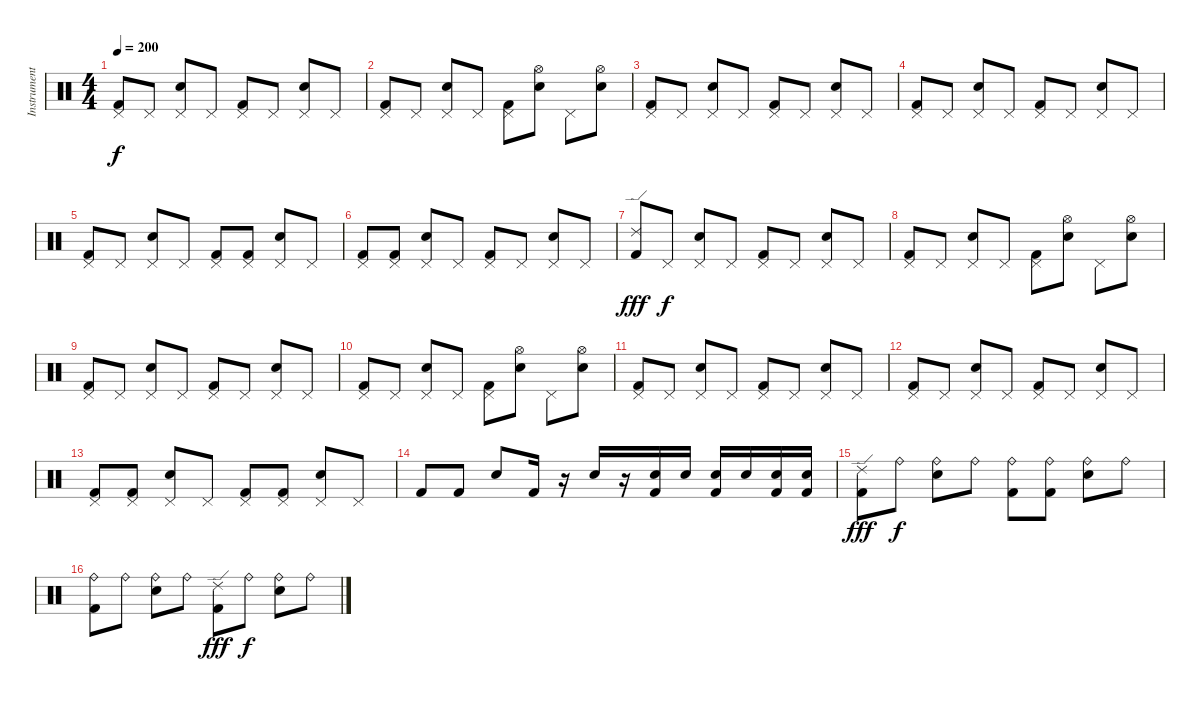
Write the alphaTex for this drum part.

\track ("Instrument 03" "Instrument") {instrument percussion}
\staff {score}
\articulation defaults
\ts (4 4)
\tempo 200
\clef neutral
\ks c
("Kick (hit) 2" "Pedal Hi-Hat (hit)").8{dy f} "Pedal Hi-Hat (hit)".8 ("Snare (hit) 2" "Pedal Hi-Hat (hit)").8 "Pedal Hi-Hat (hit)".8 ("Kick (hit) 2" "Pedal Hi-Hat (hit)").8 "Pedal Hi-Hat (hit)".8 ("Snare (hit) 2" "Pedal Hi-Hat (hit)").8 "Pedal Hi-Hat (hit)".8 |
("Kick (hit) 2" "Pedal Hi-Hat (hit)").8 "Pedal Hi-Hat (hit)".8 ("Snare (hit) 2" "Pedal Hi-Hat (hit)").8 "Pedal Hi-Hat (hit)".8 ("Kick (hit) 2" "Pedal Hi-Hat (hit)").8 ("Snare (hit) 2" "Hi-Hat (open)").8 "Pedal Hi-Hat (hit)".8 ("Snare (hit) 2" "Hi-Hat (open)").8 |
("Kick (hit) 2" "Pedal Hi-Hat (hit)").8 "Pedal Hi-Hat (hit)".8 ("Snare (hit) 2" "Pedal Hi-Hat (hit)").8 "Pedal Hi-Hat (hit)".8 ("Kick (hit) 2" "Pedal Hi-Hat (hit)").8 "Pedal Hi-Hat (hit)".8 ("Snare (hit) 2" "Pedal Hi-Hat (hit)").8 "Pedal Hi-Hat (hit)".8 |
("Kick (hit) 2" "Pedal Hi-Hat (hit)").8 "Pedal Hi-Hat (hit)".8 ("Snare (hit) 2" "Pedal Hi-Hat (hit)").8 "Pedal Hi-Hat (hit)".8 ("Kick (hit) 2" "Pedal Hi-Hat (hit)").8 "Pedal Hi-Hat (hit)".8 ("Snare (hit) 2" "Pedal Hi-Hat (hit)").8 "Pedal Hi-Hat (hit)".8 |
("Kick (hit) 2" "Pedal Hi-Hat (hit)").8 "Pedal Hi-Hat (hit)".8 ("Snare (hit) 2" "Pedal Hi-Hat (hit)").8 "Pedal Hi-Hat (hit)".8 ("Kick (hit) 2" "Pedal Hi-Hat (hit)").8 ("Kick (hit) 2" "Pedal Hi-Hat (hit)").8 ("Snare (hit) 2" "Pedal Hi-Hat (hit)").8 "Pedal Hi-Hat (hit)".8 |
("Kick (hit) 2" "Pedal Hi-Hat (hit)").8 ("Kick (hit) 2" "Pedal Hi-Hat (hit)").8 ("Snare (hit) 2" "Pedal Hi-Hat (hit)").8 "Pedal Hi-Hat (hit)".8 ("Kick (hit) 2" "Pedal Hi-Hat (hit)").8 "Pedal Hi-Hat (hit)".8 ("Snare (hit) 2" "Pedal Hi-Hat (hit)").8 "Pedal Hi-Hat (hit)".8 |
("Kick (hit) 2" "Ride (edge) 2").8{dy fff} "Pedal Hi-Hat (hit)".8{dy f} ("Snare (hit) 2" "Pedal Hi-Hat (hit)").8 "Pedal Hi-Hat (hit)".8 ("Kick (hit) 2" "Pedal Hi-Hat (hit)").8 "Pedal Hi-Hat (hit)".8 ("Snare (hit) 2" "Pedal Hi-Hat (hit)").8 "Pedal Hi-Hat (hit)".8 |
("Kick (hit) 2" "Pedal Hi-Hat (hit)").8 "Pedal Hi-Hat (hit)".8 ("Snare (hit) 2" "Pedal Hi-Hat (hit)").8 "Pedal Hi-Hat (hit)".8 ("Kick (hit) 2" "Pedal Hi-Hat (hit)").8 ("Snare (hit) 2" "Hi-Hat (open)").8 "Pedal Hi-Hat (hit)".8 ("Snare (hit) 2" "Hi-Hat (open)").8 |
("Kick (hit) 2" "Pedal Hi-Hat (hit)").8 "Pedal Hi-Hat (hit)".8 ("Snare (hit) 2" "Pedal Hi-Hat (hit)").8 "Pedal Hi-Hat (hit)".8 ("Kick (hit) 2" "Pedal Hi-Hat (hit)").8 "Pedal Hi-Hat (hit)".8 ("Snare (hit) 2" "Pedal Hi-Hat (hit)").8 "Pedal Hi-Hat (hit)".8 |
("Kick (hit) 2" "Pedal Hi-Hat (hit)").8 "Pedal Hi-Hat (hit)".8 ("Snare (hit) 2" "Pedal Hi-Hat (hit)").8 "Pedal Hi-Hat (hit)".8 ("Kick (hit) 2" "Pedal Hi-Hat (hit)").8 ("Snare (hit) 2" "Hi-Hat (open)").8 "Pedal Hi-Hat (hit)".8 ("Snare (hit) 2" "Hi-Hat (open)").8 |
("Kick (hit) 2" "Pedal Hi-Hat (hit)").8 "Pedal Hi-Hat (hit)".8 ("Snare (hit) 2" "Pedal Hi-Hat (hit)").8 "Pedal Hi-Hat (hit)".8 ("Kick (hit) 2" "Pedal Hi-Hat (hit)").8 "Pedal Hi-Hat (hit)".8 ("Snare (hit) 2" "Pedal Hi-Hat (hit)").8 "Pedal Hi-Hat (hit)".8 |
("Kick (hit) 2" "Pedal Hi-Hat (hit)").8 "Pedal Hi-Hat (hit)".8 ("Snare (hit) 2" "Pedal Hi-Hat (hit)").8 "Pedal Hi-Hat (hit)".8 ("Kick (hit) 2" "Pedal Hi-Hat (hit)").8 "Pedal Hi-Hat (hit)".8 ("Snare (hit) 2" "Pedal Hi-Hat (hit)").8 "Pedal Hi-Hat (hit)".8 |
("Kick (hit) 2" "Pedal Hi-Hat (hit)").8 ("Kick (hit) 2" "Pedal Hi-Hat (hit)").8 ("Snare (hit) 2" "Pedal Hi-Hat (hit)").8 "Pedal Hi-Hat (hit)".8 ("Kick (hit) 2" "Pedal Hi-Hat (hit)").8 ("Kick (hit) 2" "Pedal Hi-Hat (hit)").8 ("Snare (hit) 2" "Pedal Hi-Hat (hit)").8 "Pedal Hi-Hat (hit)".8 |
"Kick (hit) 2".8 "Kick (hit) 2".8 "Snare (hit) 2".8 "Kick (hit) 2".16 r.16 "Snare (hit) 2".16 r.16 ("Kick (hit) 2" "Snare (hit) 2").16 "Snare (hit) 2".16 ("Kick (hit) 2" "Snare (hit) 2").16 "Snare (hit) 2".16 ("Kick (hit) 2" "Snare (hit) 2").16 ("Kick (hit) 2" "Snare (hit) 2").16 |
("Kick (hit) 2" "Ride (edge) 2").8{dy fff} "Ride (bell)".8{dy f} ("Snare (hit) 2" "Ride (bell)").8 "Ride (bell)".8 ("Kick (hit) 2" "Ride (bell)").8 ("Kick (hit) 2" "Ride (bell)").8 ("Snare (hit) 2" "Ride (bell)").8 "Ride (bell)".8 |
("Kick (hit) 2" "Ride (bell)").8 "Ride (bell)".8 ("Snare (hit) 2" "Ride (bell)").8 "Ride (bell)".8 ("Kick (hit) 2" "Ride (edge) 2").8{dy fff} "Ride (bell)".8{dy f} ("Snare (hit) 2" "Ride (bell)").8 "Ride (bell)".8
